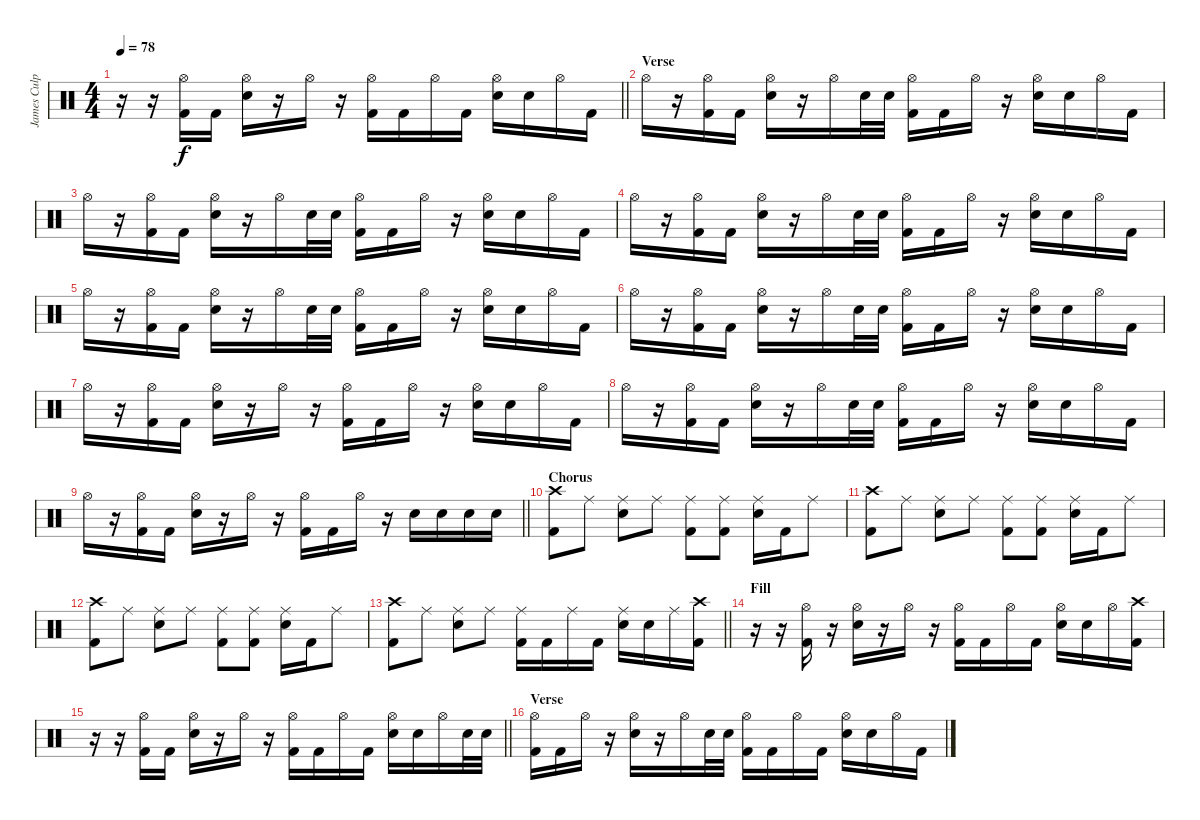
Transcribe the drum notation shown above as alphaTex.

\track ("James Culpepper" "James Culp") {instrument percussion}
\staff {score}
\articulation defaults
\ts (4 4)
\tempo 78
\clef neutral
\barLineRight lightlight
\ks c
r.16{dy f} r.16 ("Hi-Hat (open)" "Kick (hit) 2").16 "Kick (hit) 2".16 ("Hi-Hat (open)" "Snare (hit) 2").16 r.16 "Hi-Hat (open)".16 r.16 ("Hi-Hat (open)" "Kick (hit) 2").16 "Kick (hit) 2".16 "Hi-Hat (open)".16 "Kick (hit) 2".16 ("Hi-Hat (open)" "Snare (hit) 2").16 "Snare (hit) 2".16 "Hi-Hat (open)".16 "Kick (hit) 2".16 |
\section ("" "Verse")
"Hi-Hat (open)".16 r.16 ("Hi-Hat (open)" "Kick (hit) 2").16 "Kick (hit) 2".16 ("Hi-Hat (open)" "Snare (hit) 2").16 r.16 "Hi-Hat (open)".16 "Snare (hit) 2".32 "Snare (hit) 2".32 ("Hi-Hat (open)" "Kick (hit) 2").16 "Kick (hit) 2".16 "Hi-Hat (open)".16 r.16 ("Hi-Hat (open)" "Snare (hit) 2").16 "Snare (hit) 2".16 "Hi-Hat (open)".16 "Kick (hit) 2".16 |
"Hi-Hat (open)".16 r.16 ("Hi-Hat (open)" "Kick (hit) 2").16 "Kick (hit) 2".16 ("Hi-Hat (open)" "Snare (hit) 2").16 r.16 "Hi-Hat (open)".16 "Snare (hit) 2".32 "Snare (hit) 2".32 ("Hi-Hat (open)" "Kick (hit) 2").16 "Kick (hit) 2".16 "Hi-Hat (open)".16 r.16 ("Hi-Hat (open)" "Snare (hit) 2").16 "Snare (hit) 2".16 "Hi-Hat (open)".16 "Kick (hit) 2".16 |
"Hi-Hat (open)".16 r.16 ("Hi-Hat (open)" "Kick (hit) 2").16 "Kick (hit) 2".16 ("Hi-Hat (open)" "Snare (hit) 2").16 r.16 "Hi-Hat (open)".16 "Snare (hit) 2".32 "Snare (hit) 2".32 ("Hi-Hat (open)" "Kick (hit) 2").16 "Kick (hit) 2".16 "Hi-Hat (open)".16 r.16 ("Hi-Hat (open)" "Snare (hit) 2").16 "Snare (hit) 2".16 "Hi-Hat (open)".16 "Kick (hit) 2".16 |
"Hi-Hat (open)".16 r.16 ("Hi-Hat (open)" "Kick (hit) 2").16 "Kick (hit) 2".16 ("Hi-Hat (open)" "Snare (hit) 2").16 r.16 "Hi-Hat (open)".16 "Snare (hit) 2".32 "Snare (hit) 2".32 ("Hi-Hat (open)" "Kick (hit) 2").16 "Kick (hit) 2".16 "Hi-Hat (open)".16 r.16 ("Hi-Hat (open)" "Snare (hit) 2").16 "Snare (hit) 2".16 "Hi-Hat (open)".16 "Kick (hit) 2".16 |
"Hi-Hat (open)".16 r.16 ("Hi-Hat (open)" "Kick (hit) 2").16 "Kick (hit) 2".16 ("Hi-Hat (open)" "Snare (hit) 2").16 r.16 "Hi-Hat (open)".16 "Snare (hit) 2".32 "Snare (hit) 2".32 ("Hi-Hat (open)" "Kick (hit) 2").16 "Kick (hit) 2".16 "Hi-Hat (open)".16 r.16 ("Hi-Hat (open)" "Snare (hit) 2").16 "Snare (hit) 2".16 "Hi-Hat (open)".16 "Kick (hit) 2".16 |
"Hi-Hat (open)".16 r.16 ("Hi-Hat (open)" "Kick (hit) 2").16 "Kick (hit) 2".16 ("Hi-Hat (open)" "Snare (hit) 2").16 r.16 "Hi-Hat (open)".16 r.16 ("Hi-Hat (open)" "Kick (hit) 2").16 "Kick (hit) 2".16 "Hi-Hat (open)".16 r.16 ("Hi-Hat (open)" "Snare (hit) 2").16 "Snare (hit) 2".16 "Hi-Hat (open)".16 "Kick (hit) 2".16 |
"Hi-Hat (open)".16 r.16 ("Hi-Hat (open)" "Kick (hit) 2").16 "Kick (hit) 2".16 ("Hi-Hat (open)" "Snare (hit) 2").16 r.16 "Hi-Hat (open)".16 "Snare (hit) 2".32 "Snare (hit) 2".32 ("Hi-Hat (open)" "Kick (hit) 2").16 "Kick (hit) 2".16 "Hi-Hat (open)".16 r.16 ("Hi-Hat (open)" "Snare (hit) 2").16 "Snare (hit) 2".16 "Hi-Hat (open)".16 "Kick (hit) 2".16 |
\barLineRight lightlight "Hi-Hat (open)".16
r.16 ("Hi-Hat (open)" "Kick (hit) 2").16 "Kick (hit) 2".16 ("Hi-Hat (open)" "Snare (hit) 2").16 r.16 "Hi-Hat (open)".16 r.16 ("Hi-Hat (open)" "Kick (hit) 2").16 "Kick (hit) 2".16 "Hi-Hat (open)".16 r.16 "Snare (hit) 2".16 "Snare (hit) 2".16 "Snare (hit) 2".16 "Snare (hit) 2".16 |
\section ("" "Chorus")
("Crash high (hit)" "Kick (hit) 2").8 "Ride (middle)".8 ("Ride (middle)" "Snare (hit) 2").8 "Ride (middle)".8 ("Ride (middle)" "Kick (hit) 2").8 ("Ride (middle)" "Kick (hit) 2").8 ("Ride (middle)" "Snare (hit) 2").16 "Kick (hit) 2".16 "Ride (middle)".8 |
("Crash high (hit)" "Kick (hit) 2").8 "Ride (middle)".8 ("Ride (middle)" "Snare (hit) 2").8 "Ride (middle)".8 ("Ride (middle)" "Kick (hit) 2").8 ("Ride (middle)" "Kick (hit) 2").8 ("Ride (middle)" "Snare (hit) 2").16 "Kick (hit) 2".16 "Ride (middle)".8 |
("Crash high (hit)" "Kick (hit) 2").8 "Ride (middle)".8 ("Ride (middle)" "Snare (hit) 2").8 "Ride (middle)".8 ("Ride (middle)" "Kick (hit) 2").8 ("Ride (middle)" "Kick (hit) 2").8 ("Ride (middle)" "Snare (hit) 2").16 "Kick (hit) 2".16 "Ride (middle)".8 |
\barLineRight lightlight
("Crash high (hit)" "Kick (hit) 2").8 "Ride (middle)".8 ("Ride (middle)" "Snare (hit) 2").8 "Ride (middle)".8 ("Ride (middle)" "Kick (hit) 2").16 "Kick (hit) 2".16 "Ride (middle)".16 "Kick (hit) 2".16 ("Ride (middle)" "Snare (hit) 2").16 "Snare (hit) 2".16 "Ride (middle)".16 ("Crash high (hit)" "Kick (hit) 2").16 |
\section ("" "Fill")
r.16 r.16 ("Hi-Hat (open)" "Kick (hit) 2").16 r.16 ("Hi-Hat (open)" "Snare (hit) 2").16 r.16 "Hi-Hat (open)".16 r.16 ("Hi-Hat (open)" "Kick (hit) 2").16 "Kick (hit) 2".16 "Hi-Hat (open)".16 "Kick (hit) 2".16 ("Hi-Hat (open)" "Snare (hit) 2").16 "Snare (hit) 2".16 "Hi-Hat (open)".16 ("Crash high (hit)" "Kick (hit) 2").16 |
\barLineRight lightlight
r.16 r.16 ("Hi-Hat (open)" "Kick (hit) 2").16 "Kick (hit) 2".16 ("Hi-Hat (open)" "Snare (hit) 2").16 r.16 "Hi-Hat (open)".16 r.16 ("Hi-Hat (open)" "Kick (hit) 2").16 "Kick (hit) 2".16 "Hi-Hat (open)".16 "Kick (hit) 2".16 ("Hi-Hat (open)" "Snare (hit) 2").16 "Snare (hit) 2".16 "Hi-Hat (open)".16 "Snare (hit) 2".32 "Snare (hit) 2".32 |
\section ("" "Verse")
("Hi-Hat (open)" "Kick (hit) 2").16 "Kick (hit) 2".16 "Hi-Hat (open)".16 r.16 ("Hi-Hat (open)" "Snare (hit) 2").16 r.16 "Hi-Hat (open)".16 "Snare (hit) 2".32 "Snare (hit) 2".32 ("Hi-Hat (open)" "Kick (hit) 2").16 "Kick (hit) 2".16 "Hi-Hat (open)".16 "Kick (hit) 2".16 ("Hi-Hat (open)" "Snare (hit) 2").16 "Snare (hit) 2".16 "Hi-Hat (open)".16 "Kick (hit) 2".16
